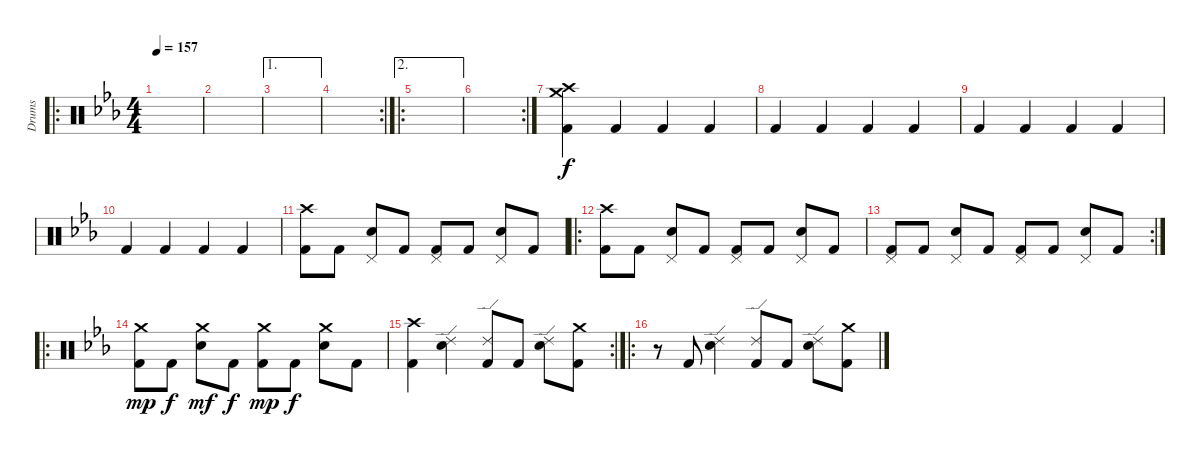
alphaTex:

\track ("Drums" "Drums") {instrument percussion}
\staff {score}
\articulation defaults
\ro
\ts (4 4)
\tempo 157
\clef neutral
\ks cminor
|
|
\ae 1
|
\rc 2
|
\ae 2
\ro
|
\rc 2
|
("Crash high (hit)" "Crash medium (hit)" "Kick (hit) 2").4 "Kick (hit) 2".4 "Kick (hit) 2".4 "Kick (hit) 2".4 |
"Kick (hit) 2".4 "Kick (hit) 2".4 "Kick (hit) 2".4 "Kick (hit) 2".4 |
"Kick (hit) 2".4 "Kick (hit) 2".4 "Kick (hit) 2".4 "Kick (hit) 2".4 |
"Kick (hit) 2".4 "Kick (hit) 2".4 "Kick (hit) 2".4 "Kick (hit) 2".4 |
("Crash high (hit)" "Kick (hit) 2").8 "Kick (hit) 2".8 ("Pedal Hi-Hat (hit)" "Electric Snare (hit)").8 "Kick (hit) 2".8 ("Pedal Hi-Hat (hit)" "Kick (hit) 2").8 "Kick (hit) 2".8 ("Pedal Hi-Hat (hit)" "Electric Snare (hit)").8 "Kick (hit) 2".8 |
\ro
("Crash high (hit)" "Kick (hit) 2").8 "Kick (hit) 2".8 ("Pedal Hi-Hat (hit)" "Electric Snare (hit)").8 "Kick (hit) 2".8 ("Pedal Hi-Hat (hit)" "Kick (hit) 2").8 "Kick (hit) 2".8 ("Pedal Hi-Hat (hit)" "Electric Snare (hit)").8 "Kick (hit) 2".8 |
\rc 2
("Pedal Hi-Hat (hit)" "Kick (hit) 2").8 "Kick (hit) 2".8 ("Pedal Hi-Hat (hit)" "Electric Snare (hit)").8 "Kick (hit) 2".8 ("Pedal Hi-Hat (hit)" "Kick (hit) 2").8 "Kick (hit) 2".8 ("Pedal Hi-Hat (hit)" "Electric Snare (hit)").8 "Kick (hit) 2".8 |
\ro
("Crash medium (hit)" "Kick (hit) 2").8{dy mp} "Kick (hit) 2".8{dy f} ("Crash medium (hit)" "Electric Snare (hit)").8{dy mf} "Kick (hit) 2".8{dy f} ("Crash medium (hit)" "Kick (hit) 2").8{dy mp} "Kick (hit) 2".8{dy f} ("Crash medium (hit)" "Electric Snare (hit)").8 "Kick (hit) 2".8 |
\rc 2
("Crash high (hit)" "Kick (hit) 2").4 ("Ride (edge) 2" "Electric Snare (hit)").4 ("Ride (edge) 2" "Kick (hit) 2").8 "Kick (hit) 2".8 ("Ride (edge) 2" "Electric Snare (hit)").8 ("Crash medium (hit)" "Kick (hit) 2").8 |
\ro
r.8 "Kick (hit) 2".8 ("Ride (edge) 2" "Electric Snare (hit)").4 ("Ride (edge) 2" "Kick (hit) 2").8 "Kick (hit) 2".8 ("Ride (edge) 2" "Electric Snare (hit)").8 ("Crash medium (hit)" "Kick (hit) 2").8
